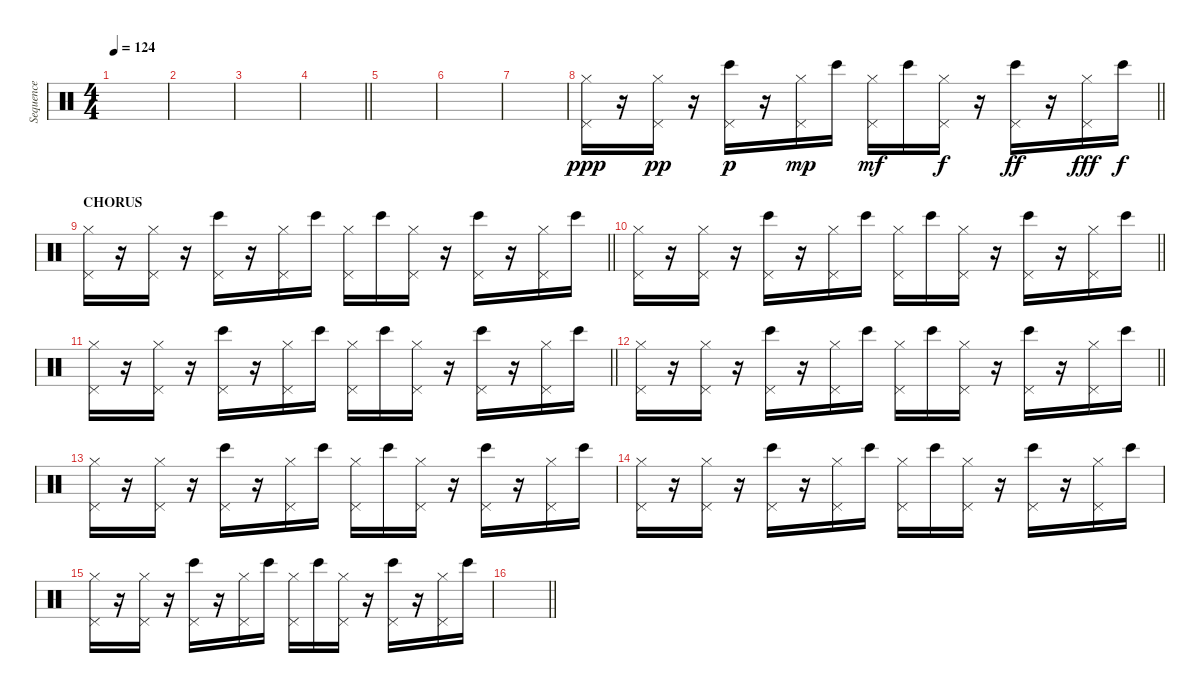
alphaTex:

\track ("Sequence" "Sequence") {instrument percussion}
\staff {score}
\articulation defaults
\ts (4 4)
\section ("" "")
\tempo 124
\clef neutral
\ks c
|
|
|
\barLineRight lightlight
|
\section ("" "")
|
|
|
\barLineRight lightlight
("Pedal Hi-Hat (hit)" "Hi-Hat (closed)").16{dy ppp} r.16 ("Pedal Hi-Hat (hit)" "Hi-Hat (closed)").16{dy pp} r.16 ("Pedal Hi-Hat (hit)" "Bongo High (hit)").16{dy p} r.16 ("Pedal Hi-Hat (hit)" "Hi-Hat (closed)").16{dy mp} "Bongo High (hit)".16 ("Pedal Hi-Hat (hit)" "Hi-Hat (closed)").16{dy mf} "Bongo High (hit)".16 ("Pedal Hi-Hat (hit)" "Hi-Hat (closed)").16{dy f} r.16 ("Pedal Hi-Hat (hit)" "Bongo High (hit)").16{dy ff} r.16 ("Pedal Hi-Hat (hit)" "Hi-Hat (closed)").16{dy fff} "Bongo High (hit)".16{dy f} |
\section ("" "CHORUS")
\barLineRight lightlight
("Pedal Hi-Hat (hit)" "Hi-Hat (closed)").16 r.16 ("Pedal Hi-Hat (hit)" "Hi-Hat (closed)").16 r.16 ("Pedal Hi-Hat (hit)" "Bongo High (hit)").16 r.16 ("Pedal Hi-Hat (hit)" "Hi-Hat (closed)").16 "Bongo High (hit)".16 ("Pedal Hi-Hat (hit)" "Hi-Hat (closed)").16 "Bongo High (hit)".16 ("Pedal Hi-Hat (hit)" "Hi-Hat (closed)").16 r.16 ("Pedal Hi-Hat (hit)" "Bongo High (hit)").16 r.16 ("Pedal Hi-Hat (hit)" "Hi-Hat (closed)").16 "Bongo High (hit)".16 |
\barLineRight lightlight
("Pedal Hi-Hat (hit)" "Hi-Hat (closed)").16 r.16 ("Pedal Hi-Hat (hit)" "Hi-Hat (closed)").16 r.16 ("Pedal Hi-Hat (hit)" "Bongo High (hit)").16 r.16 ("Pedal Hi-Hat (hit)" "Hi-Hat (closed)").16 "Bongo High (hit)".16 ("Pedal Hi-Hat (hit)" "Hi-Hat (closed)").16 "Bongo High (hit)".16 ("Pedal Hi-Hat (hit)" "Hi-Hat (closed)").16 r.16 ("Pedal Hi-Hat (hit)" "Bongo High (hit)").16 r.16 ("Pedal Hi-Hat (hit)" "Hi-Hat (closed)").16 "Bongo High (hit)".16 |
\barLineRight lightlight
("Pedal Hi-Hat (hit)" "Hi-Hat (closed)").16 r.16 ("Pedal Hi-Hat (hit)" "Hi-Hat (closed)").16 r.16 ("Pedal Hi-Hat (hit)" "Bongo High (hit)").16 r.16 ("Pedal Hi-Hat (hit)" "Hi-Hat (closed)").16 "Bongo High (hit)".16 ("Pedal Hi-Hat (hit)" "Hi-Hat (closed)").16 "Bongo High (hit)".16 ("Pedal Hi-Hat (hit)" "Hi-Hat (closed)").16 r.16 ("Pedal Hi-Hat (hit)" "Bongo High (hit)").16 r.16 ("Pedal Hi-Hat (hit)" "Hi-Hat (closed)").16 "Bongo High (hit)".16 |
\barLineRight lightlight
("Pedal Hi-Hat (hit)" "Hi-Hat (closed)").16 r.16 ("Pedal Hi-Hat (hit)" "Hi-Hat (closed)").16 r.16 ("Pedal Hi-Hat (hit)" "Bongo High (hit)").16 r.16 ("Pedal Hi-Hat (hit)" "Hi-Hat (closed)").16 "Bongo High (hit)".16 ("Pedal Hi-Hat (hit)" "Hi-Hat (closed)").16 "Bongo High (hit)".16 ("Pedal Hi-Hat (hit)" "Hi-Hat (closed)").16 r.16 ("Pedal Hi-Hat (hit)" "Bongo High (hit)").16 r.16 ("Pedal Hi-Hat (hit)" "Hi-Hat (closed)").16 "Bongo High (hit)".16 |
\section ("" "")
("Pedal Hi-Hat (hit)" "Hi-Hat (closed)").16 r.16 ("Pedal Hi-Hat (hit)" "Hi-Hat (closed)").16 r.16 ("Pedal Hi-Hat (hit)" "Bongo High (hit)").16 r.16 ("Pedal Hi-Hat (hit)" "Hi-Hat (closed)").16 "Bongo High (hit)".16 ("Pedal Hi-Hat (hit)" "Hi-Hat (closed)").16 "Bongo High (hit)".16 ("Pedal Hi-Hat (hit)" "Hi-Hat (closed)").16 r.16 ("Pedal Hi-Hat (hit)" "Bongo High (hit)").16 r.16 ("Pedal Hi-Hat (hit)" "Hi-Hat (closed)").16 "Bongo High (hit)".16 |
("Pedal Hi-Hat (hit)" "Hi-Hat (closed)").16 r.16 ("Pedal Hi-Hat (hit)" "Hi-Hat (closed)").16 r.16 ("Pedal Hi-Hat (hit)" "Bongo High (hit)").16 r.16 ("Pedal Hi-Hat (hit)" "Hi-Hat (closed)").16 "Bongo High (hit)".16 ("Pedal Hi-Hat (hit)" "Hi-Hat (closed)").16 "Bongo High (hit)".16 ("Pedal Hi-Hat (hit)" "Hi-Hat (closed)").16 r.16 ("Pedal Hi-Hat (hit)" "Bongo High (hit)").16 r.16 ("Pedal Hi-Hat (hit)" "Hi-Hat (closed)").16 "Bongo High (hit)".16 |
("Pedal Hi-Hat (hit)" "Hi-Hat (closed)").16 r.16 ("Pedal Hi-Hat (hit)" "Hi-Hat (closed)").16 r.16 ("Pedal Hi-Hat (hit)" "Bongo High (hit)").16 r.16 ("Pedal Hi-Hat (hit)" "Hi-Hat (closed)").16 "Bongo High (hit)".16 ("Pedal Hi-Hat (hit)" "Hi-Hat (closed)").16 "Bongo High (hit)".16 ("Pedal Hi-Hat (hit)" "Hi-Hat (closed)").16 r.16 ("Pedal Hi-Hat (hit)" "Bongo High (hit)").16 r.16 ("Pedal Hi-Hat (hit)" "Hi-Hat (closed)").16 "Bongo High (hit)".16 |
\barLineRight lightlight
